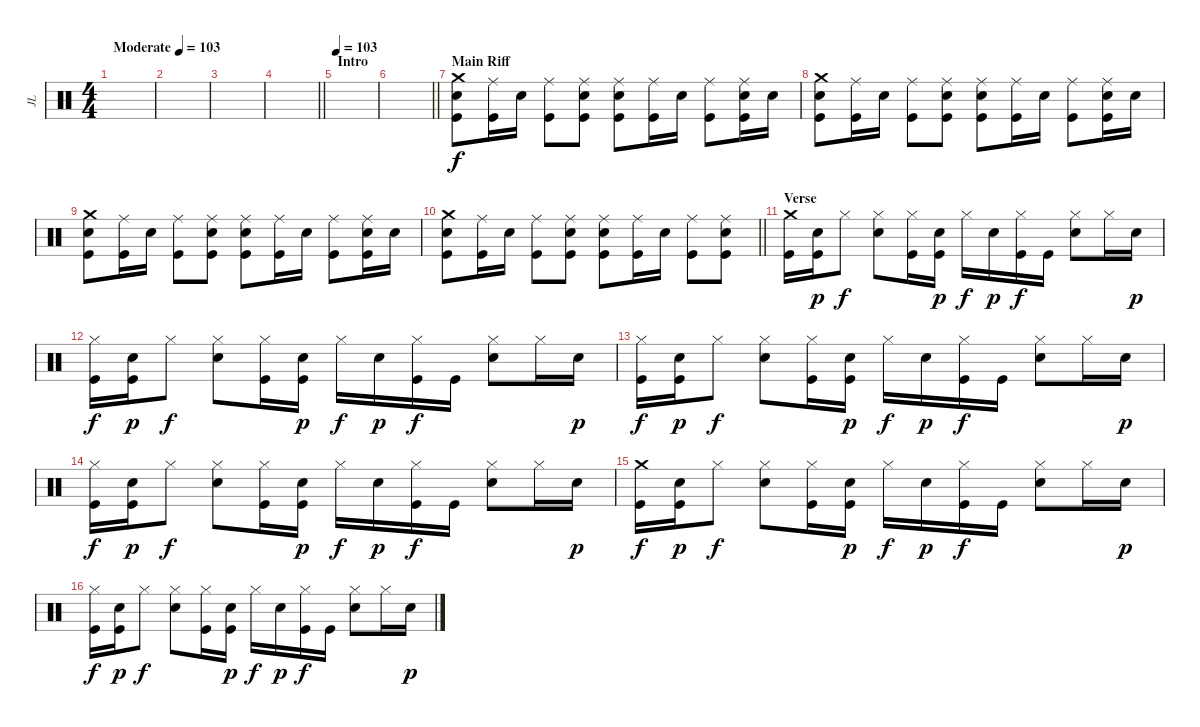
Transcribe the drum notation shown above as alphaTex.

\track ("JL" "JL") {instrument percussion}
\staff {score}
\articulation defaults
\ts (4 4)
\tempo (103 "Moderate")
\clef neutral
\ks c
|
|
|
\barLineRight lightlight
|
\section ("" "Intro")
\tempo 103
|
\barLineRight lightlight
|
\section ("" "Main Riff")
("Crash medium (hit)" "Electric Snare (hit)" "Kick (hit)").8 ("Ride (middle)" "Kick (hit)").16 "Electric Snare (hit)".16 ("Ride (middle)" "Kick (hit)").8 ("Ride (middle)" "Electric Snare (hit)" "Kick (hit)").8 ("Ride (middle)" "Electric Snare (hit)" "Kick (hit)").8 ("Ride (middle)" "Kick (hit)").16 "Electric Snare (hit)".16 ("Ride (middle)" "Kick (hit)").8 ("Ride (middle)" "Electric Snare (hit)" "Kick (hit)").16 "Electric Snare (hit)".16 |
("Crash medium (hit)" "Electric Snare (hit)" "Kick (hit)").8 ("Ride (middle)" "Kick (hit)").16 "Electric Snare (hit)".16 ("Ride (middle)" "Kick (hit)").8 ("Ride (middle)" "Electric Snare (hit)" "Kick (hit)").8 ("Ride (middle)" "Electric Snare (hit)" "Kick (hit)").8 ("Ride (middle)" "Kick (hit)").16 "Electric Snare (hit)".16 ("Ride (middle)" "Kick (hit)").8 ("Ride (middle)" "Electric Snare (hit)" "Kick (hit)").16 "Electric Snare (hit)".16 |
("Crash medium (hit)" "Electric Snare (hit)" "Kick (hit)").8 ("Ride (middle)" "Kick (hit)").16 "Electric Snare (hit)".16 ("Ride (middle)" "Kick (hit)").8 ("Ride (middle)" "Electric Snare (hit)" "Kick (hit)").8 ("Ride (middle)" "Electric Snare (hit)" "Kick (hit)").8 ("Ride (middle)" "Kick (hit)").16 "Electric Snare (hit)".16 ("Ride (middle)" "Kick (hit)").8 ("Ride (middle)" "Electric Snare (hit)" "Kick (hit)").16 "Electric Snare (hit)".16 |
\barLineRight lightlight
("Crash medium (hit)" "Electric Snare (hit)" "Kick (hit)").8 ("Ride (middle)" "Kick (hit)").16 "Electric Snare (hit)".16 ("Ride (middle)" "Kick (hit)").8 ("Ride (middle)" "Electric Snare (hit)" "Kick (hit)").8 ("Ride (middle)" "Electric Snare (hit)" "Kick (hit)").8 ("Ride (middle)" "Kick (hit)").16 "Electric Snare (hit)".16 ("Ride (middle)" "Kick (hit)").8 ("Ride (middle)" "Electric Snare (hit)" "Kick (hit)").8 |
\section ("" "Verse")
("Crash medium (hit)" "Kick (hit)").16 ("Electric Snare (hit)" "Kick (hit)").16{dy p} "Hi-Hat (closed)".8{dy f} ("Hi-Hat (closed)" "Electric Snare (hit)").8 ("Hi-Hat (closed)" "Kick (hit)").16 ("Electric Snare (hit)" "Kick (hit)").16{dy p} "Hi-Hat (closed)".16{dy f} "Electric Snare (hit)".16{dy p} ("Hi-Hat (closed)" "Kick (hit)").16{dy f} "Kick (hit)".16 ("Hi-Hat (closed)" "Electric Snare (hit)").8 "Hi-Hat (closed)".16 "Electric Snare (hit)".16{dy p} |
("Hi-Hat (closed)" "Kick (hit)").16{dy f} ("Electric Snare (hit)" "Kick (hit)").16{dy p} "Hi-Hat (closed)".8{dy f} ("Hi-Hat (closed)" "Electric Snare (hit)").8 ("Hi-Hat (closed)" "Kick (hit)").16 ("Electric Snare (hit)" "Kick (hit)").16{dy p} "Hi-Hat (closed)".16{dy f} "Electric Snare (hit)".16{dy p} ("Hi-Hat (closed)" "Kick (hit)").16{dy f} "Kick (hit)".16 ("Hi-Hat (closed)" "Electric Snare (hit)").8 "Hi-Hat (closed)".16 "Electric Snare (hit)".16{dy p} |
("Hi-Hat (closed)" "Kick (hit)").16{dy f} ("Electric Snare (hit)" "Kick (hit)").16{dy p} "Hi-Hat (closed)".8{dy f} ("Hi-Hat (closed)" "Electric Snare (hit)").8 ("Hi-Hat (closed)" "Kick (hit)").16 ("Electric Snare (hit)" "Kick (hit)").16{dy p} "Hi-Hat (closed)".16{dy f} "Electric Snare (hit)".16{dy p} ("Hi-Hat (closed)" "Kick (hit)").16{dy f} "Kick (hit)".16 ("Hi-Hat (closed)" "Electric Snare (hit)").8 "Hi-Hat (closed)".16 "Electric Snare (hit)".16{dy p} |
("Hi-Hat (closed)" "Kick (hit)").16{dy f} ("Electric Snare (hit)" "Kick (hit)").16{dy p} "Hi-Hat (closed)".8{dy f} ("Hi-Hat (closed)" "Electric Snare (hit)").8 ("Hi-Hat (closed)" "Kick (hit)").16 ("Electric Snare (hit)" "Kick (hit)").16{dy p} "Hi-Hat (closed)".16{dy f} "Electric Snare (hit)".16{dy p} ("Hi-Hat (closed)" "Kick (hit)").16{dy f} "Kick (hit)".16 ("Hi-Hat (closed)" "Electric Snare (hit)").8 "Hi-Hat (closed)".16 "Electric Snare (hit)".16{dy p} |
("Crash medium (hit)" "Kick (hit)").16{dy f} ("Electric Snare (hit)" "Kick (hit)").16{dy p} "Hi-Hat (closed)".8{dy f} ("Hi-Hat (closed)" "Electric Snare (hit)").8 ("Hi-Hat (closed)" "Kick (hit)").16 ("Electric Snare (hit)" "Kick (hit)").16{dy p} "Hi-Hat (closed)".16{dy f} "Electric Snare (hit)".16{dy p} ("Hi-Hat (closed)" "Kick (hit)").16{dy f} "Kick (hit)".16 ("Hi-Hat (closed)" "Electric Snare (hit)").8 "Hi-Hat (closed)".16 "Electric Snare (hit)".16{dy p} |
("Hi-Hat (closed)" "Kick (hit)").16{dy f} ("Electric Snare (hit)" "Kick (hit)").16{dy p} "Hi-Hat (closed)".8{dy f} ("Hi-Hat (closed)" "Electric Snare (hit)").8 ("Hi-Hat (closed)" "Kick (hit)").16 ("Electric Snare (hit)" "Kick (hit)").16{dy p} "Hi-Hat (closed)".16{dy f} "Electric Snare (hit)".16{dy p} ("Hi-Hat (closed)" "Kick (hit)").16{dy f} "Kick (hit)".16 ("Hi-Hat (closed)" "Electric Snare (hit)").8 "Hi-Hat (closed)".16 "Electric Snare (hit)".16{dy p}
